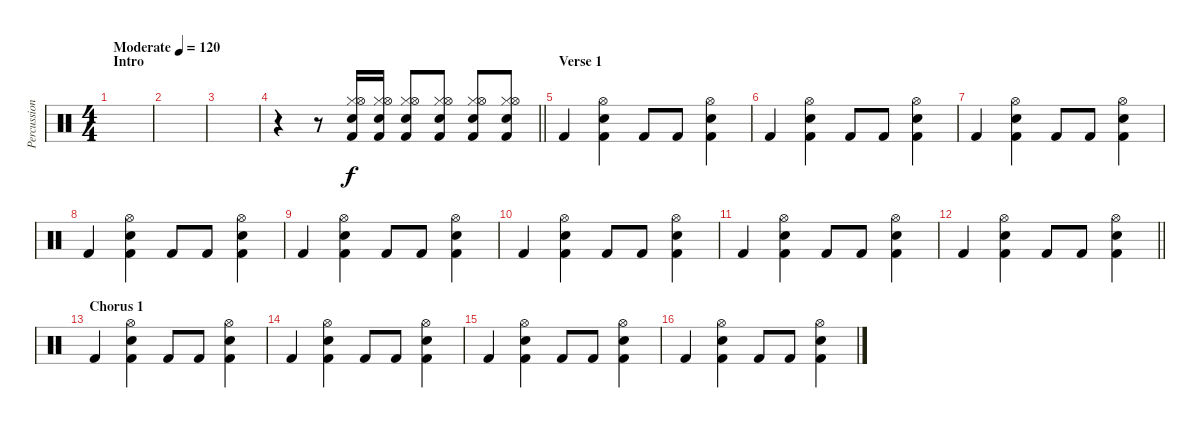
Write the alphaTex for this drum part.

\track ("Percussion" "Percussion") {instrument percussion}
\staff {score}
\articulation defaults
\ts (4 4)
\section ("" "Intro")
\tempo (120 "Moderate")
\clef neutral
\ks c
|
|
|
\barLineRight lightlight
r.4 r.8 ("Snare (hit) 2" "Hi-Hat (closed)" "Hi-Hat (open)" "Kick (hit) 2").16 ("Snare (hit) 2" "Hi-Hat (closed)" "Hi-Hat (open)" "Kick (hit) 2").16 ("Snare (hit) 2" "Hi-Hat (closed)" "Hi-Hat (open)" "Kick (hit) 2").8 ("Snare (hit) 2" "Hi-Hat (closed)" "Hi-Hat (open)" "Kick (hit) 2").8 ("Snare (hit) 2" "Hi-Hat (closed)" "Hi-Hat (open)" "Kick (hit) 2").8 ("Snare (hit) 2" "Hi-Hat (closed)" "Hi-Hat (open)" "Kick (hit) 2").8 |
\section ("" "Verse 1")
"Kick (hit) 2".4 ("Electric Snare (hit)" "Hi-Hat (open)" "Kick (hit) 2").4 "Kick (hit) 2".8 "Kick (hit) 2".8 ("Electric Snare (hit)" "Hi-Hat (open)" "Kick (hit) 2").4 |
"Kick (hit) 2".4 ("Electric Snare (hit)" "Hi-Hat (open)" "Kick (hit) 2").4 "Kick (hit) 2".8 "Kick (hit) 2".8 ("Electric Snare (hit)" "Hi-Hat (open)" "Kick (hit) 2").4 |
"Kick (hit) 2".4 ("Electric Snare (hit)" "Hi-Hat (open)" "Kick (hit) 2").4 "Kick (hit) 2".8 "Kick (hit) 2".8 ("Electric Snare (hit)" "Hi-Hat (open)" "Kick (hit) 2").4 |
"Kick (hit) 2".4 ("Electric Snare (hit)" "Hi-Hat (open)" "Kick (hit) 2").4 "Kick (hit) 2".8 "Kick (hit) 2".8 ("Electric Snare (hit)" "Hi-Hat (open)" "Kick (hit) 2").4 |
"Kick (hit) 2".4 ("Electric Snare (hit)" "Hi-Hat (open)" "Kick (hit) 2").4 "Kick (hit) 2".8 "Kick (hit) 2".8 ("Electric Snare (hit)" "Hi-Hat (open)" "Kick (hit) 2").4 |
"Kick (hit) 2".4 ("Electric Snare (hit)" "Hi-Hat (open)" "Kick (hit) 2").4 "Kick (hit) 2".8 "Kick (hit) 2".8 ("Electric Snare (hit)" "Hi-Hat (open)" "Kick (hit) 2").4 |
"Kick (hit) 2".4 ("Electric Snare (hit)" "Hi-Hat (open)" "Kick (hit) 2").4 "Kick (hit) 2".8 "Kick (hit) 2".8 ("Electric Snare (hit)" "Hi-Hat (open)" "Kick (hit) 2").4 |
\barLineRight lightlight "Kick (hit) 2".4
("Electric Snare (hit)" "Hi-Hat (open)" "Kick (hit) 2").4 "Kick (hit) 2".8 "Kick (hit) 2".8 ("Electric Snare (hit)" "Hi-Hat (open)" "Kick (hit) 2").4 |
\section ("" "Chorus 1")
"Kick (hit) 2".4 ("Electric Snare (hit)" "Hi-Hat (open)" "Kick (hit) 2").4 "Kick (hit) 2".8 "Kick (hit) 2".8 ("Electric Snare (hit)" "Hi-Hat (open)" "Kick (hit) 2").4 |
"Kick (hit) 2".4 ("Electric Snare (hit)" "Hi-Hat (open)" "Kick (hit) 2").4 "Kick (hit) 2".8 "Kick (hit) 2".8 ("Electric Snare (hit)" "Hi-Hat (open)" "Kick (hit) 2").4 |
"Kick (hit) 2".4 ("Electric Snare (hit)" "Hi-Hat (open)" "Kick (hit) 2").4 "Kick (hit) 2".8 "Kick (hit) 2".8 ("Electric Snare (hit)" "Hi-Hat (open)" "Kick (hit) 2").4 |
"Kick (hit) 2".4 ("Electric Snare (hit)" "Hi-Hat (open)" "Kick (hit) 2").4 "Kick (hit) 2".8 "Kick (hit) 2".8 ("Electric Snare (hit)" "Hi-Hat (open)" "Kick (hit) 2").4
